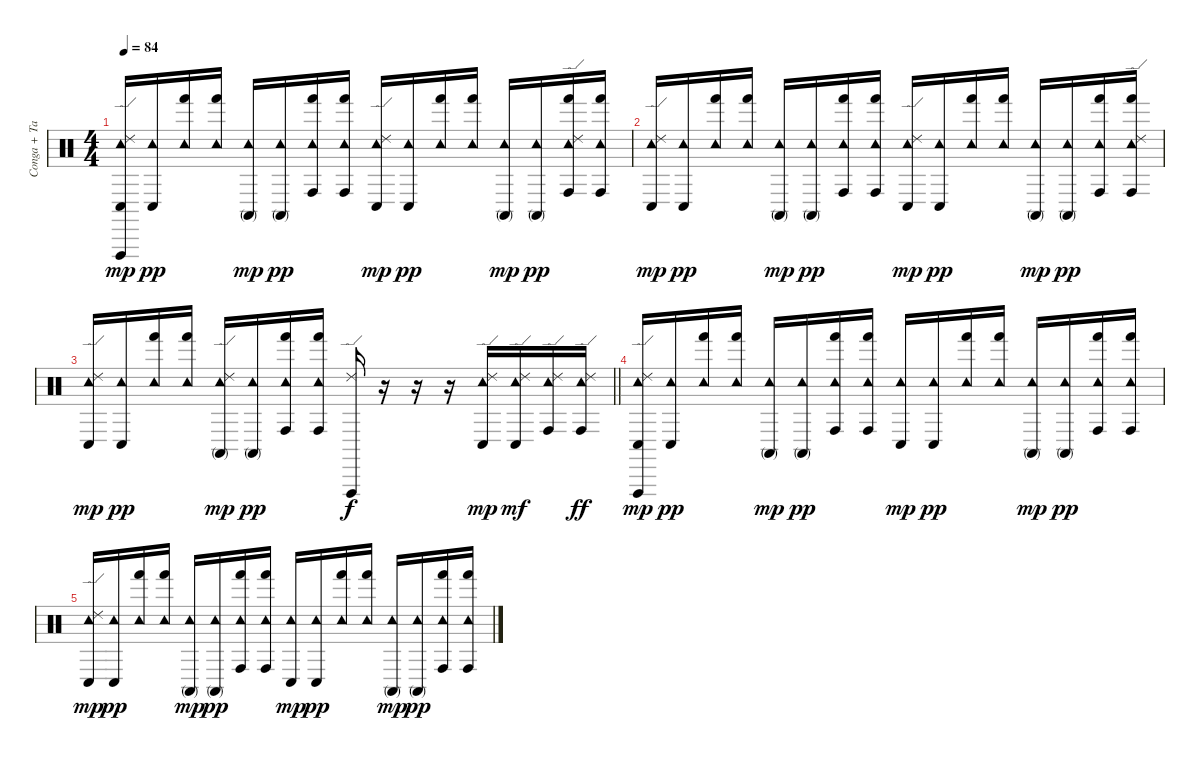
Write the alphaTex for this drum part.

\track ("Conga + Tambourine" "Conga + Ta") {instrument percussion}
\staff {score}
\articulation defaults
\ts (4 4)
\tempo 84
\clef neutral
\ks c
("Conga low (hit)" "Vibraslap (hit)" "Tambourine (hit)" "Ride (edge) 2").16{dy mp} ("Conga low (hit)" "Tambourine (hit)").16{dy pp} ("Hand (hit)" "Tambourine (hit)").16 ("Hand (hit)" "Tambourine (hit)").16 ("Conga high (mute)" "Tambourine (hit)").16{dy mp} ("Conga high (mute)" "Tambourine (hit)").16{dy pp} ("Conga high (hit)" "Hand (hit)" "Tambourine (hit)").16 ("Conga high (hit)" "Hand (hit)" "Tambourine (hit)").16 ("Conga low (hit)" "Tambourine (hit)" "Ride (edge) 2").16{dy mp} ("Conga low (hit)" "Tambourine (hit)").16{dy pp} ("Hand (hit)" "Tambourine (hit)").16 ("Hand (hit)" "Tambourine (hit)").16 ("Conga high (mute)" "Tambourine (hit)").16{dy mp} ("Conga high (mute)" "Tambourine (hit)").16{dy pp} ("Conga high (hit)" "Hand (hit)" "Tambourine (hit)" "Ride (edge) 2").16 ("Conga high (hit)" "Hand (hit)" "Tambourine (hit)").16 |
("Conga low (hit)" "Tambourine (hit)" "Ride (edge) 2").16{dy mp} ("Conga low (hit)" "Tambourine (hit)").16{dy pp} ("Hand (hit)" "Tambourine (hit)").16 ("Hand (hit)" "Tambourine (hit)").16 ("Conga high (mute)" "Tambourine (hit)").16{dy mp} ("Conga high (mute)" "Tambourine (hit)").16{dy pp} ("Conga high (hit)" "Hand (hit)" "Tambourine (hit)").16 ("Conga high (hit)" "Hand (hit)" "Tambourine (hit)").16 ("Conga low (hit)" "Tambourine (hit)" "Ride (edge) 2").16{dy mp} ("Conga low (hit)" "Tambourine (hit)").16{dy pp} ("Hand (hit)" "Tambourine (hit)").16 ("Hand (hit)" "Tambourine (hit)").16 ("Conga high (mute)" "Tambourine (hit)").16{dy mp} ("Conga high (mute)" "Tambourine (hit)").16{dy pp} ("Conga high (hit)" "Hand (hit)" "Tambourine (hit)").16 ("Conga high (hit)" "Hand (hit)" "Tambourine (hit)" "Ride (edge) 2").16 |
\barLineRight lightlight
("Conga low (hit)" "Tambourine (hit)" "Ride (edge) 2").16{dy mp} ("Conga low (hit)" "Tambourine (hit)").16{dy pp} ("Hand (hit)" "Tambourine (hit)").16 ("Hand (hit)" "Tambourine (hit)").16 ("Conga high (mute)" "Tambourine (hit)" "Ride (edge) 2").16{dy mp} ("Conga high (mute)" "Tambourine (hit)").16{dy pp} ("Conga high (hit)" "Hand (hit)" "Tambourine (hit)").16 ("Conga high (hit)" "Hand (hit)" "Tambourine (hit)").16 ("Vibraslap (hit)" "Ride (edge) 2").16{dy f} r.16 r.16 r.16 ("Conga low (hit)" "Tambourine (hit)" "Ride (edge) 2").16{dy mp} ("Conga low (hit)" "Tambourine (hit)" "Ride (edge) 2").16{dy mf} ("Conga high (hit)" "Tambourine (hit)" "Ride (edge) 2").16 ("Conga high (hit)" "Tambourine (hit)" "Ride (edge) 2").16{dy ff} |
("Conga low (hit)" "Vibraslap (hit)" "Tambourine (hit)" "Ride (edge) 2").16{dy mp volume 0} ("Conga low (hit)" "Tambourine (hit)").16{dy pp} ("Hand (hit)" "Tambourine (hit)").16 ("Hand (hit)" "Tambourine (hit)").16 ("Conga high (mute)" "Tambourine (hit)").16{dy mp} ("Conga high (mute)" "Tambourine (hit)").16{dy pp} ("Conga high (hit)" "Hand (hit)" "Tambourine (hit)").16 ("Conga high (hit)" "Hand (hit)" "Tambourine (hit)").16 ("Conga low (hit)" "Tambourine (hit)").16{dy mp} ("Conga low (hit)" "Tambourine (hit)").16{dy pp} ("Hand (hit)" "Tambourine (hit)").16 ("Hand (hit)" "Tambourine (hit)").16 ("Conga high (mute)" "Tambourine (hit)").16{dy mp} ("Conga high (mute)" "Tambourine (hit)").16{dy pp} ("Conga high (hit)" "Hand (hit)" "Tambourine (hit)").16 ("Conga high (hit)" "Hand (hit)" "Tambourine (hit)").16 |
("Conga low (hit)" "Tambourine (hit)" "Ride (edge) 2").16{dy mp} ("Conga low (hit)" "Tambourine (hit)").16{dy pp} ("Hand (hit)" "Tambourine (hit)").16 ("Hand (hit)" "Tambourine (hit)").16 ("Conga high (mute)" "Tambourine (hit)").16{dy mp} ("Conga high (mute)" "Tambourine (hit)").16{dy pp} ("Conga high (hit)" "Hand (hit)" "Tambourine (hit)").16 ("Conga high (hit)" "Hand (hit)" "Tambourine (hit)").16 ("Conga low (hit)" "Tambourine (hit)").16{dy mp} ("Conga low (hit)" "Tambourine (hit)").16{dy pp} ("Hand (hit)" "Tambourine (hit)").16 ("Hand (hit)" "Tambourine (hit)").16 ("Conga high (mute)" "Tambourine (hit)").16{dy mp} ("Conga high (mute)" "Tambourine (hit)").16{dy pp} ("Conga high (hit)" "Hand (hit)" "Tambourine (hit)").16 ("Conga high (hit)" "Hand (hit)" "Tambourine (hit)").16
